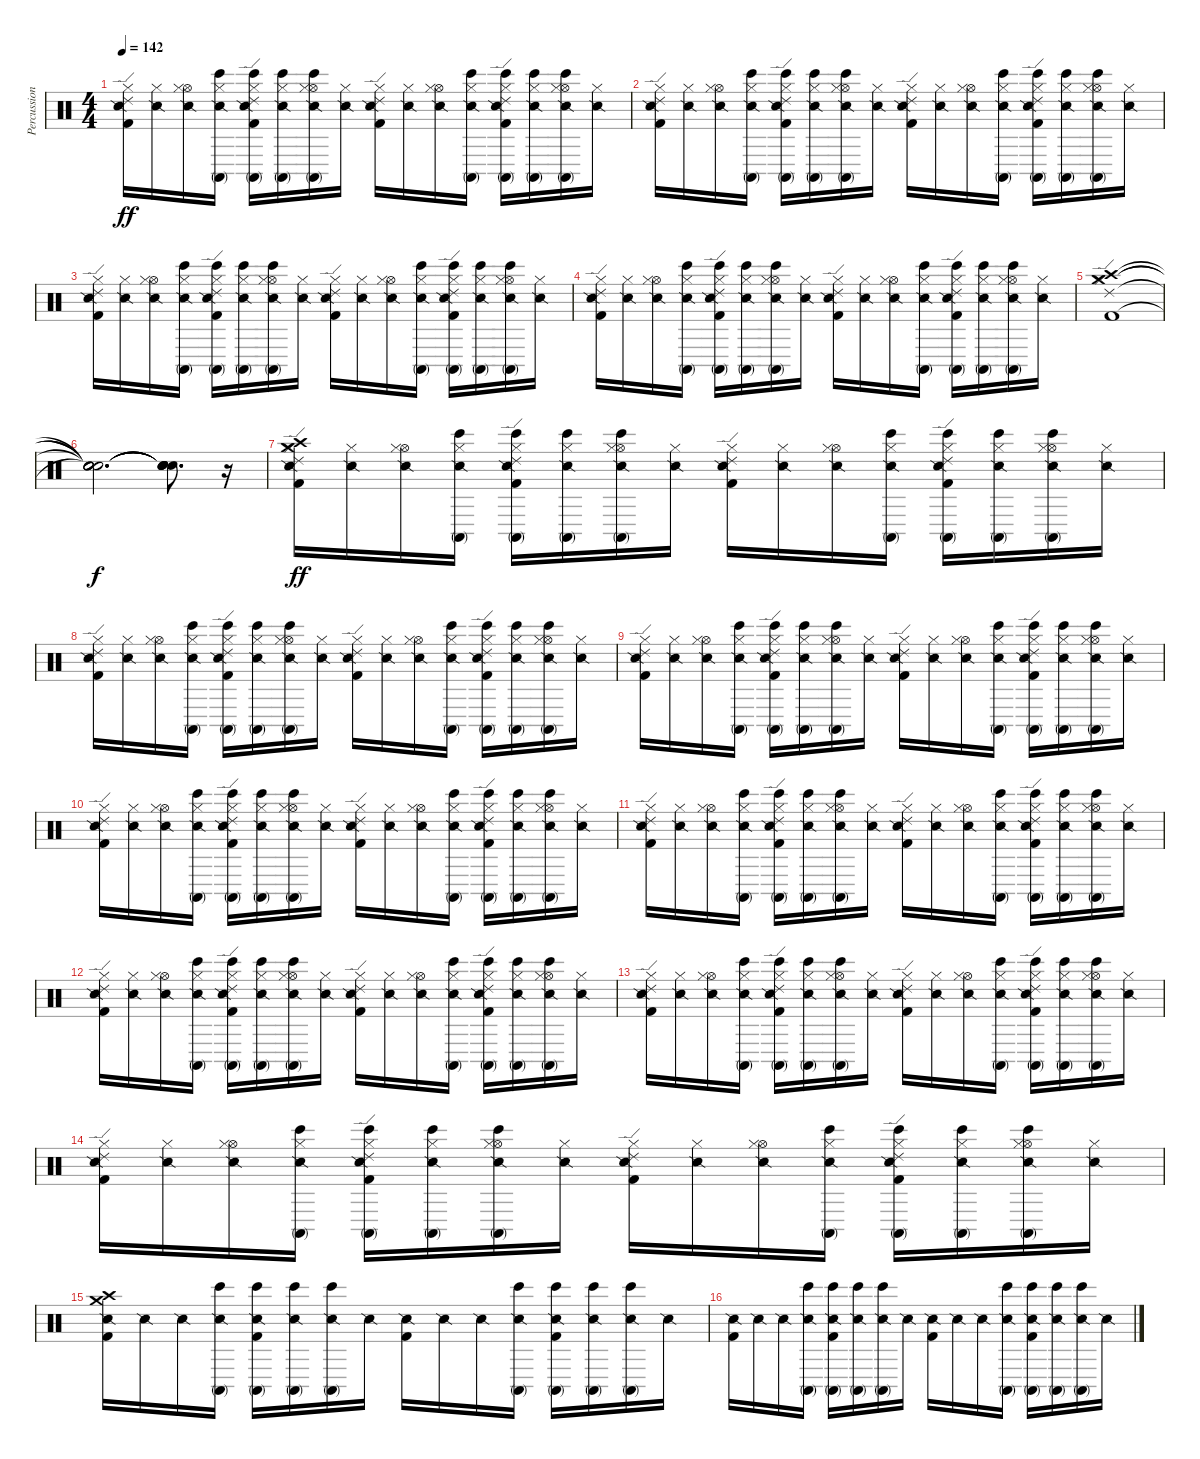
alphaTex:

\track ("Percussion" "Percussion") {instrument percussion}
\staff {score}
\articulation defaults
\ts (4 4)
\tempo 142
\clef neutral
\ks c
("Ride (edge) 2" "Hi-Hat (closed)" "Snare (side stick) 2" "Kick (hit) 2").16{dy ff} ("Hi-Hat (closed)" "Snare (side stick) 2").16 ("Hi-Hat (open)" "Hi-Hat (closed)" "Snare (side stick) 2").16 ("Conga high (mute)" "Bongo High (hit)" "Hi-Hat (closed)" "Snare (side stick) 2").16 ("Conga high (mute)" "Bongo High (hit)" "Ride (edge) 2" "Hi-Hat (closed)" "Snare (side stick) 2" "Kick (hit) 2").16 ("Conga high (mute)" "Bongo High (hit)" "Hi-Hat (closed)" "Snare (side stick) 2").16 ("Conga high (mute)" "Bongo High (hit)" "Hi-Hat (open)" "Hi-Hat (closed)" "Snare (side stick) 2").16 ("Hi-Hat (closed)" "Snare (side stick) 2").16 ("Ride (edge) 2" "Hi-Hat (closed)" "Snare (side stick) 2" "Kick (hit) 2").16 ("Hi-Hat (closed)" "Snare (side stick) 2").16 ("Hi-Hat (open)" "Hi-Hat (closed)" "Snare (side stick) 2").16 ("Conga high (mute)" "Bongo High (hit)" "Hi-Hat (closed)" "Snare (side stick) 2").16 ("Conga high (mute)" "Bongo High (hit)" "Ride (edge) 2" "Hi-Hat (closed)" "Snare (side stick) 2" "Kick (hit) 2").16 ("Conga high (mute)" "Bongo High (hit)" "Hi-Hat (closed)" "Snare (side stick) 2").16 ("Conga high (mute)" "Bongo High (hit)" "Hi-Hat (open)" "Hi-Hat (closed)" "Snare (side stick) 2").16 ("Hi-Hat (closed)" "Snare (side stick) 2").16 |
("Ride (edge) 2" "Hi-Hat (closed)" "Snare (side stick) 2" "Kick (hit) 2").16 ("Hi-Hat (closed)" "Snare (side stick) 2").16 ("Hi-Hat (open)" "Hi-Hat (closed)" "Snare (side stick) 2").16 ("Conga high (mute)" "Bongo High (hit)" "Hi-Hat (closed)" "Snare (side stick) 2").16 ("Conga high (mute)" "Bongo High (hit)" "Ride (edge) 2" "Hi-Hat (closed)" "Snare (side stick) 2" "Kick (hit) 2").16 ("Conga high (mute)" "Bongo High (hit)" "Hi-Hat (closed)" "Snare (side stick) 2").16 ("Conga high (mute)" "Bongo High (hit)" "Hi-Hat (open)" "Hi-Hat (closed)" "Snare (side stick) 2").16 ("Hi-Hat (closed)" "Snare (side stick) 2").16 ("Ride (edge) 2" "Hi-Hat (closed)" "Snare (side stick) 2" "Kick (hit) 2").16 ("Hi-Hat (closed)" "Snare (side stick) 2").16 ("Hi-Hat (open)" "Hi-Hat (closed)" "Snare (side stick) 2").16 ("Conga high (mute)" "Bongo High (hit)" "Hi-Hat (closed)" "Snare (side stick) 2").16 ("Conga high (mute)" "Bongo High (hit)" "Ride (edge) 2" "Hi-Hat (closed)" "Snare (side stick) 2" "Kick (hit) 2").16 ("Conga high (mute)" "Bongo High (hit)" "Hi-Hat (closed)" "Snare (side stick) 2").16 ("Conga high (mute)" "Bongo High (hit)" "Hi-Hat (open)" "Hi-Hat (closed)" "Snare (side stick) 2").16 ("Hi-Hat (closed)" "Snare (side stick) 2").16 |
("Ride (edge) 2" "Hi-Hat (closed)" "Snare (side stick) 2" "Kick (hit) 2").16 ("Hi-Hat (closed)" "Snare (side stick) 2").16 ("Hi-Hat (open)" "Hi-Hat (closed)" "Snare (side stick) 2").16 ("Conga high (mute)" "Bongo High (hit)" "Hi-Hat (closed)" "Snare (side stick) 2").16 ("Conga high (mute)" "Bongo High (hit)" "Ride (edge) 2" "Hi-Hat (closed)" "Snare (side stick) 2" "Kick (hit) 2").16 ("Conga high (mute)" "Bongo High (hit)" "Hi-Hat (closed)" "Snare (side stick) 2").16 ("Conga high (mute)" "Bongo High (hit)" "Hi-Hat (open)" "Hi-Hat (closed)" "Snare (side stick) 2").16 ("Hi-Hat (closed)" "Snare (side stick) 2").16 ("Ride (edge) 2" "Hi-Hat (closed)" "Snare (side stick) 2" "Kick (hit) 2").16 ("Hi-Hat (closed)" "Snare (side stick) 2").16 ("Hi-Hat (open)" "Hi-Hat (closed)" "Snare (side stick) 2").16 ("Conga high (mute)" "Bongo High (hit)" "Hi-Hat (closed)" "Snare (side stick) 2").16 ("Conga high (mute)" "Bongo High (hit)" "Ride (edge) 2" "Hi-Hat (closed)" "Snare (side stick) 2" "Kick (hit) 2").16 ("Conga high (mute)" "Bongo High (hit)" "Hi-Hat (closed)" "Snare (side stick) 2").16 ("Conga high (mute)" "Bongo High (hit)" "Hi-Hat (open)" "Hi-Hat (closed)" "Snare (side stick) 2").16 ("Hi-Hat (closed)" "Snare (side stick) 2").16 |
("Ride (edge) 2" "Hi-Hat (closed)" "Snare (side stick) 2" "Kick (hit) 2").16 ("Hi-Hat (closed)" "Snare (side stick) 2").16 ("Hi-Hat (open)" "Hi-Hat (closed)" "Snare (side stick) 2").16 ("Conga high (mute)" "Bongo High (hit)" "Hi-Hat (closed)" "Snare (side stick) 2").16 ("Conga high (mute)" "Bongo High (hit)" "Ride (edge) 2" "Hi-Hat (closed)" "Snare (side stick) 2" "Kick (hit) 2").16 ("Conga high (mute)" "Bongo High (hit)" "Hi-Hat (closed)" "Snare (side stick) 2").16 ("Conga high (mute)" "Bongo High (hit)" "Hi-Hat (open)" "Hi-Hat (closed)" "Snare (side stick) 2").16 ("Hi-Hat (closed)" "Snare (side stick) 2").16 ("Ride (edge) 2" "Hi-Hat (closed)" "Snare (side stick) 2" "Kick (hit) 2").16 ("Hi-Hat (closed)" "Snare (side stick) 2").16 ("Hi-Hat (open)" "Hi-Hat (closed)" "Snare (side stick) 2").16 ("Conga high (mute)" "Bongo High (hit)" "Hi-Hat (closed)" "Snare (side stick) 2").16 ("Conga high (mute)" "Bongo High (hit)" "Ride (edge) 2" "Hi-Hat (closed)" "Snare (side stick) 2" "Kick (hit) 2").16 ("Conga high (mute)" "Bongo High (hit)" "Hi-Hat (closed)" "Snare (side stick) 2").16 ("Conga high (mute)" "Bongo High (hit)" "Hi-Hat (open)" "Hi-Hat (closed)" "Snare (side stick) 2").16 ("Hi-Hat (closed)" "Snare (side stick) 2").16 |
("Ride (edge) 2" "Crash medium (hit)" "Crash high (hit)" "Hi-Hat (closed)" "Kick (hit) 2").1 |
("Snare (hit)"{t} "Snare (hit)"{t} "Snare (hit)"{t} "Snare (hit)"{t} "Snare (hit)"{t}).2{d dy f} ("Snare (hit)"{t} "Snare (hit)"{t} "Snare (hit)"{t} "Snare (hit)"{t} "Snare (hit)"{t}).8{d} r.16 |
("Ride (edge) 2" "Crash medium (hit)" "Crash high (hit)" "Hi-Hat (closed)" "Snare (side stick) 2" "Kick (hit) 2").16{dy ff} ("Hi-Hat (closed)" "Snare (side stick) 2").16 ("Hi-Hat (open)" "Hi-Hat (closed)" "Snare (side stick) 2").16 ("Conga high (mute)" "Bongo High (hit)" "Hi-Hat (closed)" "Snare (side stick) 2").16 ("Conga high (mute)" "Bongo High (hit)" "Ride (edge) 2" "Hi-Hat (closed)" "Snare (side stick) 2" "Kick (hit) 2").16 ("Conga high (mute)" "Bongo High (hit)" "Hi-Hat (closed)" "Snare (side stick) 2").16 ("Conga high (mute)" "Bongo High (hit)" "Hi-Hat (open)" "Hi-Hat (closed)" "Snare (side stick) 2").16 ("Hi-Hat (closed)" "Snare (side stick) 2").16 ("Ride (edge) 2" "Hi-Hat (closed)" "Snare (side stick) 2" "Kick (hit) 2").16 ("Hi-Hat (closed)" "Snare (side stick) 2").16 ("Hi-Hat (open)" "Hi-Hat (closed)" "Snare (side stick) 2").16 ("Conga high (mute)" "Bongo High (hit)" "Hi-Hat (closed)" "Snare (side stick) 2").16 ("Conga high (mute)" "Bongo High (hit)" "Ride (edge) 2" "Hi-Hat (closed)" "Snare (side stick) 2" "Kick (hit) 2").16 ("Conga high (mute)" "Bongo High (hit)" "Hi-Hat (closed)" "Snare (side stick) 2").16 ("Conga high (mute)" "Bongo High (hit)" "Hi-Hat (open)" "Hi-Hat (closed)" "Snare (side stick) 2").16 ("Hi-Hat (closed)" "Snare (side stick) 2").16 |
("Ride (edge) 2" "Hi-Hat (closed)" "Snare (side stick) 2" "Kick (hit) 2").16 ("Hi-Hat (closed)" "Snare (side stick) 2").16 ("Hi-Hat (open)" "Hi-Hat (closed)" "Snare (side stick) 2").16 ("Conga high (mute)" "Bongo High (hit)" "Hi-Hat (closed)" "Snare (side stick) 2").16 ("Conga high (mute)" "Bongo High (hit)" "Ride (edge) 2" "Hi-Hat (closed)" "Snare (side stick) 2" "Kick (hit) 2").16 ("Conga high (mute)" "Bongo High (hit)" "Hi-Hat (closed)" "Snare (side stick) 2").16 ("Conga high (mute)" "Bongo High (hit)" "Hi-Hat (open)" "Hi-Hat (closed)" "Snare (side stick) 2").16 ("Hi-Hat (closed)" "Snare (side stick) 2").16 ("Ride (edge) 2" "Hi-Hat (closed)" "Snare (side stick) 2" "Kick (hit) 2").16 ("Hi-Hat (closed)" "Snare (side stick) 2").16 ("Hi-Hat (open)" "Hi-Hat (closed)" "Snare (side stick) 2").16 ("Conga high (mute)" "Bongo High (hit)" "Hi-Hat (closed)" "Snare (side stick) 2").16 ("Conga high (mute)" "Bongo High (hit)" "Ride (edge) 2" "Hi-Hat (closed)" "Snare (side stick) 2" "Kick (hit) 2").16 ("Conga high (mute)" "Bongo High (hit)" "Hi-Hat (closed)" "Snare (side stick) 2").16 ("Conga high (mute)" "Bongo High (hit)" "Hi-Hat (open)" "Hi-Hat (closed)" "Snare (side stick) 2").16 ("Hi-Hat (closed)" "Snare (side stick) 2").16 |
("Ride (edge) 2" "Hi-Hat (closed)" "Snare (side stick) 2" "Kick (hit) 2").16 ("Hi-Hat (closed)" "Snare (side stick) 2").16 ("Hi-Hat (open)" "Hi-Hat (closed)" "Snare (side stick) 2").16 ("Conga high (mute)" "Bongo High (hit)" "Hi-Hat (closed)" "Snare (side stick) 2").16 ("Conga high (mute)" "Bongo High (hit)" "Ride (edge) 2" "Hi-Hat (closed)" "Snare (side stick) 2" "Kick (hit) 2").16 ("Conga high (mute)" "Bongo High (hit)" "Hi-Hat (closed)" "Snare (side stick) 2").16 ("Conga high (mute)" "Bongo High (hit)" "Hi-Hat (open)" "Hi-Hat (closed)" "Snare (side stick) 2").16 ("Hi-Hat (closed)" "Snare (side stick) 2").16 ("Ride (edge) 2" "Hi-Hat (closed)" "Snare (side stick) 2" "Kick (hit) 2").16 ("Hi-Hat (closed)" "Snare (side stick) 2").16 ("Hi-Hat (open)" "Hi-Hat (closed)" "Snare (side stick) 2").16 ("Conga high (mute)" "Bongo High (hit)" "Hi-Hat (closed)" "Snare (side stick) 2").16 ("Conga high (mute)" "Bongo High (hit)" "Ride (edge) 2" "Hi-Hat (closed)" "Snare (side stick) 2" "Kick (hit) 2").16 ("Conga high (mute)" "Bongo High (hit)" "Hi-Hat (closed)" "Snare (side stick) 2").16 ("Conga high (mute)" "Bongo High (hit)" "Hi-Hat (open)" "Hi-Hat (closed)" "Snare (side stick) 2").16 ("Hi-Hat (closed)" "Snare (side stick) 2").16 |
("Ride (edge) 2" "Hi-Hat (closed)" "Snare (side stick) 2" "Kick (hit) 2").16 ("Hi-Hat (closed)" "Snare (side stick) 2").16 ("Hi-Hat (open)" "Hi-Hat (closed)" "Snare (side stick) 2").16 ("Conga high (mute)" "Bongo High (hit)" "Hi-Hat (closed)" "Snare (side stick) 2").16 ("Conga high (mute)" "Bongo High (hit)" "Ride (edge) 2" "Hi-Hat (closed)" "Snare (side stick) 2" "Kick (hit) 2").16 ("Conga high (mute)" "Bongo High (hit)" "Hi-Hat (closed)" "Snare (side stick) 2").16 ("Conga high (mute)" "Bongo High (hit)" "Hi-Hat (open)" "Hi-Hat (closed)" "Snare (side stick) 2").16 ("Hi-Hat (closed)" "Snare (side stick) 2").16 ("Ride (edge) 2" "Hi-Hat (closed)" "Snare (side stick) 2" "Kick (hit) 2").16 ("Hi-Hat (closed)" "Snare (side stick) 2").16 ("Hi-Hat (open)" "Hi-Hat (closed)" "Snare (side stick) 2").16 ("Conga high (mute)" "Bongo High (hit)" "Hi-Hat (closed)" "Snare (side stick) 2").16 ("Conga high (mute)" "Bongo High (hit)" "Ride (edge) 2" "Hi-Hat (closed)" "Snare (side stick) 2" "Kick (hit) 2").16 ("Conga high (mute)" "Bongo High (hit)" "Hi-Hat (closed)" "Snare (side stick) 2").16 ("Conga high (mute)" "Bongo High (hit)" "Hi-Hat (open)" "Hi-Hat (closed)" "Snare (side stick) 2").16 ("Hi-Hat (closed)" "Snare (side stick) 2").16 |
("Ride (edge) 2" "Hi-Hat (closed)" "Snare (side stick) 2" "Kick (hit) 2").16 ("Hi-Hat (closed)" "Snare (side stick) 2").16 ("Hi-Hat (open)" "Hi-Hat (closed)" "Snare (side stick) 2").16 ("Conga high (mute)" "Bongo High (hit)" "Hi-Hat (closed)" "Snare (side stick) 2").16 ("Conga high (mute)" "Bongo High (hit)" "Ride (edge) 2" "Hi-Hat (closed)" "Snare (side stick) 2" "Kick (hit) 2").16 ("Conga high (mute)" "Bongo High (hit)" "Hi-Hat (closed)" "Snare (side stick) 2").16 ("Conga high (mute)" "Bongo High (hit)" "Hi-Hat (open)" "Hi-Hat (closed)" "Snare (side stick) 2").16 ("Hi-Hat (closed)" "Snare (side stick) 2").16 ("Ride (edge) 2" "Hi-Hat (closed)" "Snare (side stick) 2" "Kick (hit) 2").16 ("Hi-Hat (closed)" "Snare (side stick) 2").16 ("Hi-Hat (open)" "Hi-Hat (closed)" "Snare (side stick) 2").16 ("Conga high (mute)" "Bongo High (hit)" "Hi-Hat (closed)" "Snare (side stick) 2").16 ("Conga high (mute)" "Bongo High (hit)" "Ride (edge) 2" "Hi-Hat (closed)" "Snare (side stick) 2" "Kick (hit) 2").16 ("Conga high (mute)" "Bongo High (hit)" "Hi-Hat (closed)" "Snare (side stick) 2").16 ("Conga high (mute)" "Bongo High (hit)" "Hi-Hat (open)" "Hi-Hat (closed)" "Snare (side stick) 2").16 ("Hi-Hat (closed)" "Snare (side stick) 2").16 |
("Ride (edge) 2" "Hi-Hat (closed)" "Snare (side stick) 2" "Kick (hit) 2").16 ("Hi-Hat (closed)" "Snare (side stick) 2").16 ("Hi-Hat (open)" "Hi-Hat (closed)" "Snare (side stick) 2").16 ("Conga high (mute)" "Bongo High (hit)" "Hi-Hat (closed)" "Snare (side stick) 2").16 ("Conga high (mute)" "Bongo High (hit)" "Ride (edge) 2" "Hi-Hat (closed)" "Snare (side stick) 2" "Kick (hit) 2").16 ("Conga high (mute)" "Bongo High (hit)" "Hi-Hat (closed)" "Snare (side stick) 2").16 ("Conga high (mute)" "Bongo High (hit)" "Hi-Hat (open)" "Hi-Hat (closed)" "Snare (side stick) 2").16 ("Hi-Hat (closed)" "Snare (side stick) 2").16 ("Ride (edge) 2" "Hi-Hat (closed)" "Snare (side stick) 2" "Kick (hit) 2").16 ("Hi-Hat (closed)" "Snare (side stick) 2").16 ("Hi-Hat (open)" "Hi-Hat (closed)" "Snare (side stick) 2").16 ("Conga high (mute)" "Bongo High (hit)" "Hi-Hat (closed)" "Snare (side stick) 2").16 ("Conga high (mute)" "Bongo High (hit)" "Ride (edge) 2" "Hi-Hat (closed)" "Snare (side stick) 2" "Kick (hit) 2").16 ("Conga high (mute)" "Bongo High (hit)" "Hi-Hat (closed)" "Snare (side stick) 2").16 ("Conga high (mute)" "Bongo High (hit)" "Hi-Hat (open)" "Hi-Hat (closed)" "Snare (side stick) 2").16 ("Hi-Hat (closed)" "Snare (side stick) 2").16 |
("Ride (edge) 2" "Hi-Hat (closed)" "Snare (side stick) 2" "Kick (hit) 2").16 ("Hi-Hat (closed)" "Snare (side stick) 2").16 ("Hi-Hat (open)" "Hi-Hat (closed)" "Snare (side stick) 2").16 ("Conga high (mute)" "Bongo High (hit)" "Hi-Hat (closed)" "Snare (side stick) 2").16 ("Conga high (mute)" "Bongo High (hit)" "Ride (edge) 2" "Hi-Hat (closed)" "Snare (side stick) 2" "Kick (hit) 2").16 ("Conga high (mute)" "Bongo High (hit)" "Hi-Hat (closed)" "Snare (side stick) 2").16 ("Conga high (mute)" "Bongo High (hit)" "Hi-Hat (open)" "Hi-Hat (closed)" "Snare (side stick) 2").16 ("Hi-Hat (closed)" "Snare (side stick) 2").16 ("Ride (edge) 2" "Hi-Hat (closed)" "Snare (side stick) 2" "Kick (hit) 2").16 ("Hi-Hat (closed)" "Snare (side stick) 2").16 ("Hi-Hat (open)" "Hi-Hat (closed)" "Snare (side stick) 2").16 ("Conga high (mute)" "Bongo High (hit)" "Hi-Hat (closed)" "Snare (side stick) 2").16 ("Conga high (mute)" "Bongo High (hit)" "Ride (edge) 2" "Hi-Hat (closed)" "Snare (side stick) 2" "Kick (hit) 2").16 ("Conga high (mute)" "Bongo High (hit)" "Hi-Hat (closed)" "Snare (side stick) 2").16 ("Conga high (mute)" "Bongo High (hit)" "Hi-Hat (open)" "Hi-Hat (closed)" "Snare (side stick) 2").16 ("Hi-Hat (closed)" "Snare (side stick) 2").16 |
("Ride (edge) 2" "Hi-Hat (closed)" "Snare (side stick) 2" "Kick (hit) 2").16 ("Hi-Hat (closed)" "Snare (side stick) 2").16 ("Hi-Hat (open)" "Hi-Hat (closed)" "Snare (side stick) 2").16 ("Conga high (mute)" "Bongo High (hit)" "Hi-Hat (closed)" "Snare (side stick) 2").16 ("Conga high (mute)" "Bongo High (hit)" "Ride (edge) 2" "Hi-Hat (closed)" "Snare (side stick) 2" "Kick (hit) 2").16 ("Conga high (mute)" "Bongo High (hit)" "Hi-Hat (closed)" "Snare (side stick) 2").16 ("Conga high (mute)" "Bongo High (hit)" "Hi-Hat (open)" "Hi-Hat (closed)" "Snare (side stick) 2").16 ("Hi-Hat (closed)" "Snare (side stick) 2").16 ("Ride (edge) 2" "Hi-Hat (closed)" "Snare (side stick) 2" "Kick (hit) 2").16 ("Hi-Hat (closed)" "Snare (side stick) 2").16 ("Hi-Hat (open)" "Hi-Hat (closed)" "Snare (side stick) 2").16 ("Conga high (mute)" "Bongo High (hit)" "Hi-Hat (closed)" "Snare (side stick) 2").16 ("Conga high (mute)" "Bongo High (hit)" "Ride (edge) 2" "Hi-Hat (closed)" "Snare (side stick) 2" "Kick (hit) 2").16 ("Conga high (mute)" "Bongo High (hit)" "Hi-Hat (closed)" "Snare (side stick) 2").16 ("Conga high (mute)" "Bongo High (hit)" "Hi-Hat (open)" "Hi-Hat (closed)" "Snare (side stick) 2").16 ("Hi-Hat (closed)" "Snare (side stick) 2").16 |
("Crash medium (hit)" "Crash high (hit)" "Snare (side stick) 2" "Kick (hit) 2").16 "Snare (side stick) 2".16 "Snare (side stick) 2".16 ("Conga high (mute)" "Bongo High (hit)" "Snare (side stick) 2").16 ("Conga high (mute)" "Bongo High (hit)" "Snare (side stick) 2" "Kick (hit) 2").16 ("Conga high (mute)" "Bongo High (hit)" "Snare (side stick) 2").16 ("Conga high (mute)" "Bongo High (hit)" "Snare (side stick) 2").16 "Snare (side stick) 2".16 ("Snare (side stick) 2" "Kick (hit) 2").16 "Snare (side stick) 2".16 "Snare (side stick) 2".16 ("Conga high (mute)" "Bongo High (hit)" "Snare (side stick) 2").16 ("Conga high (mute)" "Bongo High (hit)" "Snare (side stick) 2" "Kick (hit) 2").16 ("Conga high (mute)" "Bongo High (hit)" "Snare (side stick) 2").16 ("Conga high (mute)" "Bongo High (hit)" "Snare (side stick) 2").16 "Snare (side stick) 2".16 |
("Snare (side stick) 2" "Kick (hit) 2").16 "Snare (side stick) 2".16 "Snare (side stick) 2".16 ("Conga high (mute)" "Bongo High (hit)" "Snare (side stick) 2").16 ("Conga high (mute)" "Bongo High (hit)" "Snare (side stick) 2" "Kick (hit) 2").16 ("Conga high (mute)" "Bongo High (hit)" "Snare (side stick) 2").16 ("Conga high (mute)" "Bongo High (hit)" "Snare (side stick) 2").16 "Snare (side stick) 2".16 ("Snare (side stick) 2" "Kick (hit) 2").16 "Snare (side stick) 2".16 "Snare (side stick) 2".16 ("Conga high (mute)" "Bongo High (hit)" "Snare (side stick) 2").16 ("Conga high (mute)" "Bongo High (hit)" "Snare (side stick) 2" "Kick (hit) 2").16 ("Conga high (mute)" "Bongo High (hit)" "Snare (side stick) 2").16 ("Conga high (mute)" "Bongo High (hit)" "Snare (side stick) 2").16 "Snare (side stick) 2".16
